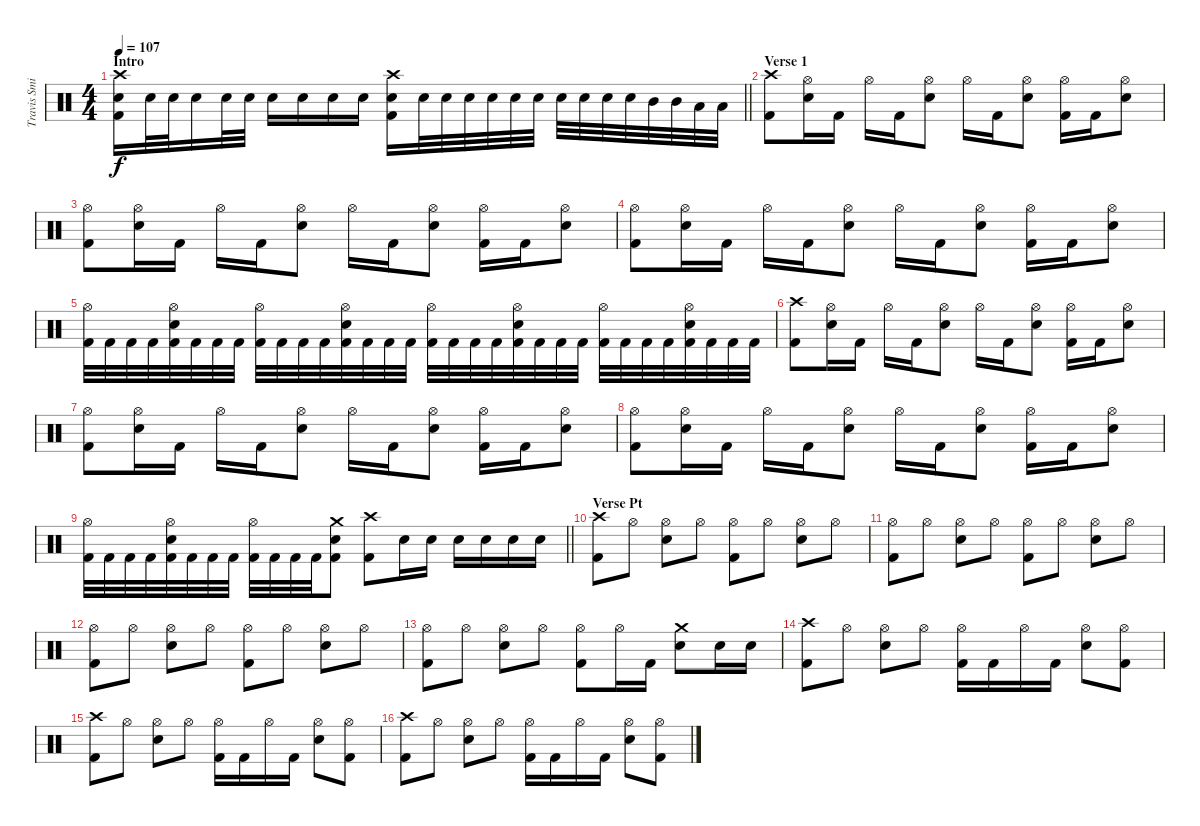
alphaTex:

\track ("Travis Smith" "Travis Smi") {instrument percussion}
\staff {score}
\articulation defaults
\ts (4 4)
\section ("" "Intro")
\tempo 107
\clef neutral
\barLineRight lightlight
\ks c
("Crash high (hit)" "Electric Snare (hit)" "Kick (hit) 2").16{dy f} "Electric Snare (hit)".32 "Electric Snare (hit)".32 "Electric Snare (hit)".16 "Electric Snare (hit)".32 "Electric Snare (hit)".32 "Electric Snare (hit)".16 "Electric Snare (hit)".16 "Electric Snare (hit)".16 "Electric Snare (hit)".16 ("Crash high (hit)" "Electric Snare (hit)" "Kick (hit) 2").16 "Electric Snare (hit)".32 "Electric Snare (hit)".32 "Electric Snare (hit)".32 "Electric Snare (hit)".32 "Electric Snare (hit)".32 "Electric Snare (hit)".32 "Electric Snare (hit)".32 "Electric Snare (hit)".32 "Electric Snare (hit)".32 "Electric Snare (hit)".32 "Mid Tom (hit)".32 "Mid Tom (hit)".32 "Low Tom (hit)".32 "Low Tom (hit)".32 |
\section ("" "Verse 1")
("Crash high (hit)" "Kick (hit) 2").8 ("Hi-Hat (open)" "Electric Snare (hit)").16 "Kick (hit) 2".16 "Hi-Hat (open)".16 "Kick (hit) 2".16 ("Hi-Hat (open)" "Electric Snare (hit)").8 "Hi-Hat (open)".16 "Kick (hit) 2".16 ("Hi-Hat (open)" "Electric Snare (hit)").8 ("Hi-Hat (open)" "Kick (hit) 2").16 "Kick (hit) 2".16 ("Hi-Hat (open)" "Electric Snare (hit)").8 |
("Hi-Hat (open)" "Kick (hit) 2").8 ("Hi-Hat (open)" "Electric Snare (hit)").16 "Kick (hit) 2".16 "Hi-Hat (open)".16 "Kick (hit) 2".16 ("Hi-Hat (open)" "Electric Snare (hit)").8 "Hi-Hat (open)".16 "Kick (hit) 2".16 ("Hi-Hat (open)" "Electric Snare (hit)").8 ("Hi-Hat (open)" "Kick (hit) 2").16 "Kick (hit) 2".16 ("Hi-Hat (open)" "Electric Snare (hit)").8 |
("Hi-Hat (open)" "Kick (hit) 2").8 ("Hi-Hat (open)" "Electric Snare (hit)").16 "Kick (hit) 2".16 "Hi-Hat (open)".16 "Kick (hit) 2".16 ("Hi-Hat (open)" "Electric Snare (hit)").8 "Hi-Hat (open)".16 "Kick (hit) 2".16 ("Hi-Hat (open)" "Electric Snare (hit)").8 ("Hi-Hat (open)" "Kick (hit) 2").16 "Kick (hit) 2".16 ("Hi-Hat (open)" "Electric Snare (hit)").8 |
("Hi-Hat (open)" "Kick (hit) 2").32 "Kick (hit) 2".32 "Kick (hit) 2".32 "Kick (hit) 2".32 ("Hi-Hat (open)" "Electric Snare (hit)" "Kick (hit) 2").32 "Kick (hit) 2".32 "Kick (hit) 2".32 "Kick (hit) 2".32 ("Hi-Hat (open)" "Kick (hit) 2").32 "Kick (hit) 2".32 "Kick (hit) 2".32 "Kick (hit) 2".32 ("Hi-Hat (open)" "Electric Snare (hit)" "Kick (hit) 2").32 "Kick (hit) 2".32 "Kick (hit) 2".32 "Kick (hit) 2".32 ("Hi-Hat (open)" "Kick (hit) 2").32 "Kick (hit) 2".32 "Kick (hit) 2".32 "Kick (hit) 2".32 ("Hi-Hat (open)" "Electric Snare (hit)" "Kick (hit) 2").32 "Kick (hit) 2".32 "Kick (hit) 2".32 "Kick (hit) 2".32 ("Hi-Hat (open)" "Kick (hit) 2").32 "Kick (hit) 2".32 "Kick (hit) 2".32 "Kick (hit) 2".32 ("Hi-Hat (open)" "Electric Snare (hit)" "Kick (hit) 2").32 "Kick (hit) 2".32 "Kick (hit) 2".32 "Kick (hit) 2".32 |
("Crash high (hit)" "Kick (hit) 2").8 ("Hi-Hat (open)" "Electric Snare (hit)").16 "Kick (hit) 2".16 "Hi-Hat (open)".16 "Kick (hit) 2".16 ("Hi-Hat (open)" "Electric Snare (hit)").8 "Hi-Hat (open)".16 "Kick (hit) 2".16 ("Hi-Hat (open)" "Electric Snare (hit)").8 ("Hi-Hat (open)" "Kick (hit) 2").16 "Kick (hit) 2".16 ("Hi-Hat (open)" "Electric Snare (hit)").8 |
("Hi-Hat (open)" "Kick (hit) 2").8 ("Hi-Hat (open)" "Electric Snare (hit)").16 "Kick (hit) 2".16 "Hi-Hat (open)".16 "Kick (hit) 2".16 ("Hi-Hat (open)" "Electric Snare (hit)").8 "Hi-Hat (open)".16 "Kick (hit) 2".16 ("Hi-Hat (open)" "Electric Snare (hit)").8 ("Hi-Hat (open)" "Kick (hit) 2").16 "Kick (hit) 2".16 ("Hi-Hat (open)" "Electric Snare (hit)").8 |
("Hi-Hat (open)" "Kick (hit) 2").8 ("Hi-Hat (open)" "Electric Snare (hit)").16 "Kick (hit) 2".16 "Hi-Hat (open)".16 "Kick (hit) 2".16 ("Hi-Hat (open)" "Electric Snare (hit)").8 "Hi-Hat (open)".16 "Kick (hit) 2".16 ("Hi-Hat (open)" "Electric Snare (hit)").8 ("Hi-Hat (open)" "Kick (hit) 2").16 "Kick (hit) 2".16 ("Hi-Hat (open)" "Electric Snare (hit)").8 |
\barLineRight lightlight
("Hi-Hat (open)" "Kick (hit) 2").32 "Kick (hit) 2".32 "Kick (hit) 2".32 "Kick (hit) 2".32 ("Hi-Hat (open)" "Electric Snare (hit)" "Kick (hit) 2").32 "Kick (hit) 2".32 "Kick (hit) 2".32 "Kick (hit) 2".32 ("Hi-Hat (open)" "Kick (hit) 2").32 "Kick (hit) 2".32 "Kick (hit) 2".32 "Kick (hit) 2".32 ("Crash medium (hit)" "Electric Snare (hit)" "Kick (hit) 2").8 ("Crash high (hit)" "Kick (hit) 2").8 "Electric Snare (hit)".16 "Electric Snare (hit)".16 "Electric Snare (hit)".16 "Electric Snare (hit)".16 "Electric Snare (hit)".16 "Electric Snare (hit)".16 |
\section ("" "Verse Pt")
("Crash high (hit)" "Kick (hit) 2").8 "Hi-Hat (open)".8 ("Hi-Hat (open)" "Electric Snare (hit)").8 "Hi-Hat (open)".8 ("Hi-Hat (open)" "Kick (hit) 2").8 "Hi-Hat (open)".8 ("Hi-Hat (open)" "Electric Snare (hit)").8 "Hi-Hat (open)".8 |
("Hi-Hat (open)" "Kick (hit) 2").8 "Hi-Hat (open)".8 ("Hi-Hat (open)" "Electric Snare (hit)").8 "Hi-Hat (open)".8 ("Hi-Hat (open)" "Kick (hit) 2").8 "Hi-Hat (open)".8 ("Hi-Hat (open)" "Electric Snare (hit)").8 "Hi-Hat (open)".8 |
("Hi-Hat (open)" "Kick (hit) 2").8 "Hi-Hat (open)".8 ("Hi-Hat (open)" "Electric Snare (hit)").8 "Hi-Hat (open)".8 ("Hi-Hat (open)" "Kick (hit) 2").8 "Hi-Hat (open)".8 ("Hi-Hat (open)" "Electric Snare (hit)").8 "Hi-Hat (open)".8 |
("Hi-Hat (open)" "Kick (hit) 2").8 "Hi-Hat (open)".8 ("Hi-Hat (open)" "Electric Snare (hit)").8 "Hi-Hat (open)".8 ("Hi-Hat (open)" "Kick (hit) 2").8 "Hi-Hat (open)".16 "Kick (hit) 2".16 ("Crash medium (hit)" "Electric Snare (hit)").8 "Electric Snare (hit)".16 "Electric Snare (hit)".16 |
("Crash high (hit)" "Kick (hit) 2").8 "Hi-Hat (open)".8 ("Hi-Hat (open)" "Electric Snare (hit)").8 "Hi-Hat (open)".8 ("Hi-Hat (open)" "Kick (hit) 2").16 "Kick (hit) 2".16 "Hi-Hat (open)".16 "Kick (hit) 2".16 ("Hi-Hat (open)" "Electric Snare (hit)").8 ("Hi-Hat (open)" "Kick (hit) 2").8 |
("Crash high (hit)" "Kick (hit) 2").8 "Hi-Hat (open)".8 ("Hi-Hat (open)" "Electric Snare (hit)").8 "Hi-Hat (open)".8 ("Hi-Hat (open)" "Kick (hit) 2").16 "Kick (hit) 2".16 "Hi-Hat (open)".16 "Kick (hit) 2".16 ("Hi-Hat (open)" "Electric Snare (hit)").8 ("Hi-Hat (open)" "Kick (hit) 2").8 |
("Crash high (hit)" "Kick (hit) 2").8 "Hi-Hat (open)".8 ("Hi-Hat (open)" "Electric Snare (hit)").8 "Hi-Hat (open)".8 ("Hi-Hat (open)" "Kick (hit) 2").16 "Kick (hit) 2".16 "Hi-Hat (open)".16 "Kick (hit) 2".16 ("Hi-Hat (open)" "Electric Snare (hit)").8 ("Hi-Hat (open)" "Kick (hit) 2").8
